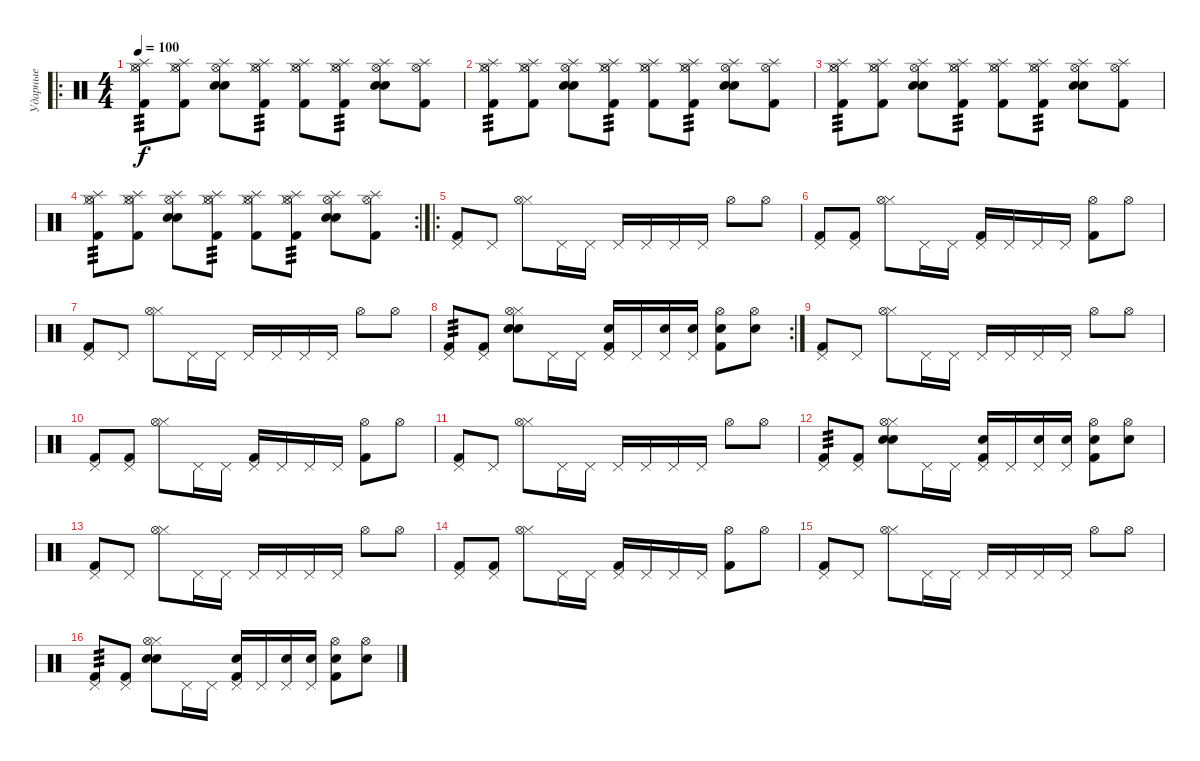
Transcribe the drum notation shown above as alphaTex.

\track ("Ударные" "Ударные") {instrument percussion}
\staff {score}
\articulation defaults
\ro
\ts (4 4)
\tempo 100
\clef neutral
\ks c
("Hi-Hat (open)" "Splash (hit)" "Hi-Hat (closed)" "Kick (hit) 2").8{tp 3 dy f} ("Hi-Hat (open)" "Splash (hit)" "Hi-Hat (closed)" "Kick (hit) 2").8 ("Electric Snare (hit)" "Snare (hit) 2" "Hi-Hat (open)" "Splash (hit)").8 ("Hi-Hat (open)" "Splash (hit)" "Hi-Hat (closed)" "Kick (hit) 2").8{tp 3} ("Hi-Hat (open)" "Splash (hit)" "Hi-Hat (closed)" "Kick (hit) 2").8 ("Hi-Hat (open)" "Splash (hit)" "Hi-Hat (closed)" "Kick (hit) 2").8{tp 3} ("Electric Snare (hit)" "Snare (hit) 2" "Hi-Hat (open)" "Splash (hit)").8 ("Hi-Hat (open)" "Splash (hit)" "Kick (hit) 2").8 |
("Hi-Hat (open)" "Splash (hit)" "Hi-Hat (closed)" "Kick (hit) 2").8{tp 3} ("Hi-Hat (open)" "Splash (hit)" "Hi-Hat (closed)" "Kick (hit) 2").8 ("Electric Snare (hit)" "Snare (hit) 2" "Hi-Hat (open)" "Splash (hit)").8 ("Hi-Hat (open)" "Splash (hit)" "Hi-Hat (closed)" "Kick (hit) 2").8{tp 3} ("Hi-Hat (open)" "Splash (hit)" "Hi-Hat (closed)" "Kick (hit) 2").8 ("Hi-Hat (open)" "Splash (hit)" "Hi-Hat (closed)" "Kick (hit) 2").8{tp 3} ("Electric Snare (hit)" "Snare (hit) 2" "Hi-Hat (open)" "Splash (hit)").8 ("Hi-Hat (open)" "Splash (hit)" "Kick (hit) 2").8 |
("Hi-Hat (open)" "Splash (hit)" "Hi-Hat (closed)" "Kick (hit) 2").8{tp 3} ("Hi-Hat (open)" "Splash (hit)" "Hi-Hat (closed)" "Kick (hit) 2").8 ("Electric Snare (hit)" "Snare (hit) 2" "Hi-Hat (open)" "Splash (hit)").8 ("Hi-Hat (open)" "Splash (hit)" "Hi-Hat (closed)" "Kick (hit) 2").8{tp 3} ("Hi-Hat (open)" "Splash (hit)" "Hi-Hat (closed)" "Kick (hit) 2").8 ("Hi-Hat (open)" "Splash (hit)" "Hi-Hat (closed)" "Kick (hit) 2").8{tp 3} ("Electric Snare (hit)" "Snare (hit) 2" "Hi-Hat (open)" "Splash (hit)").8 ("Hi-Hat (open)" "Splash (hit)" "Kick (hit) 2").8 |
\rc 2
("Hi-Hat (open)" "Splash (hit)" "Hi-Hat (closed)" "Kick (hit) 2").8{tp 3} ("Hi-Hat (open)" "Splash (hit)" "Hi-Hat (closed)" "Kick (hit) 2").8 ("Electric Snare (hit)" "Snare (hit) 2" "Hi-Hat (open)" "Splash (hit)").8 ("Hi-Hat (open)" "Splash (hit)" "Hi-Hat (closed)" "Kick (hit) 2").8{tp 3} ("Hi-Hat (open)" "Splash (hit)" "Hi-Hat (closed)" "Kick (hit) 2").8 ("Hi-Hat (open)" "Splash (hit)" "Hi-Hat (closed)" "Kick (hit) 2").8{tp 3} ("Electric Snare (hit)" "Snare (hit) 2" "Hi-Hat (open)" "Splash (hit)").8 ("Hi-Hat (open)" "Splash (hit)" "Kick (hit) 2").8 |
\ro
("Pedal Hi-Hat (hit)" "Kick (hit) 2").8 "Pedal Hi-Hat (hit)".8 ("Hi-Hat (closed)" "Hi-Hat (open)").8 "Pedal Hi-Hat (hit)".16 "Pedal Hi-Hat (hit)".16 "Pedal Hi-Hat (hit)".16 "Pedal Hi-Hat (hit)".16 "Pedal Hi-Hat (hit)".16 "Pedal Hi-Hat (hit)".16 "Hi-Hat (open)".8 "Hi-Hat (open)".8 |
("Pedal Hi-Hat (hit)" "Kick (hit) 2").8 ("Pedal Hi-Hat (hit)" "Kick (hit) 2").8 ("Hi-Hat (closed)" "Hi-Hat (open)").8 "Pedal Hi-Hat (hit)".16 "Pedal Hi-Hat (hit)".16 ("Pedal Hi-Hat (hit)" "Kick (hit) 2").16 "Pedal Hi-Hat (hit)".16 "Pedal Hi-Hat (hit)".16 "Pedal Hi-Hat (hit)".16 ("Hi-Hat (open)" "Kick (hit) 2").8 "Hi-Hat (open)".8 |
("Pedal Hi-Hat (hit)" "Kick (hit) 2").8 "Pedal Hi-Hat (hit)".8 ("Hi-Hat (closed)" "Hi-Hat (open)").8 "Pedal Hi-Hat (hit)".16 "Pedal Hi-Hat (hit)".16 "Pedal Hi-Hat (hit)".16 "Pedal Hi-Hat (hit)".16 "Pedal Hi-Hat (hit)".16 "Pedal Hi-Hat (hit)".16 "Hi-Hat (open)".8 "Hi-Hat (open)".8 |
\rc 2
("Pedal Hi-Hat (hit)" "Kick (hit) 2").8{tp 3} ("Pedal Hi-Hat (hit)" "Kick (hit) 2").8 ("Hi-Hat (closed)" "Hi-Hat (open)" "Electric Snare (hit)" "Snare (hit) 2").8 "Pedal Hi-Hat (hit)".16 "Pedal Hi-Hat (hit)".16 ("Pedal Hi-Hat (hit)" "Snare (hit) 2" "Kick (hit) 2").16 "Pedal Hi-Hat (hit)".16 ("Pedal Hi-Hat (hit)" "Snare (hit) 2").16 ("Pedal Hi-Hat (hit)" "Snare (hit) 2").16 ("Hi-Hat (open)" "Snare (hit) 2" "Kick (hit) 2").8 ("Hi-Hat (open)" "Snare (hit) 2").8 |
("Pedal Hi-Hat (hit)" "Kick (hit) 2").8 "Pedal Hi-Hat (hit)".8 ("Hi-Hat (closed)" "Hi-Hat (open)").8 "Pedal Hi-Hat (hit)".16 "Pedal Hi-Hat (hit)".16 "Pedal Hi-Hat (hit)".16 "Pedal Hi-Hat (hit)".16 "Pedal Hi-Hat (hit)".16 "Pedal Hi-Hat (hit)".16 "Hi-Hat (open)".8 "Hi-Hat (open)".8 |
("Pedal Hi-Hat (hit)" "Kick (hit) 2").8 ("Pedal Hi-Hat (hit)" "Kick (hit) 2").8 ("Hi-Hat (closed)" "Hi-Hat (open)").8 "Pedal Hi-Hat (hit)".16 "Pedal Hi-Hat (hit)".16 ("Pedal Hi-Hat (hit)" "Kick (hit) 2").16 "Pedal Hi-Hat (hit)".16 "Pedal Hi-Hat (hit)".16 "Pedal Hi-Hat (hit)".16 ("Hi-Hat (open)" "Kick (hit) 2").8 "Hi-Hat (open)".8 |
("Pedal Hi-Hat (hit)" "Kick (hit) 2").8 "Pedal Hi-Hat (hit)".8 ("Hi-Hat (closed)" "Hi-Hat (open)").8 "Pedal Hi-Hat (hit)".16 "Pedal Hi-Hat (hit)".16 "Pedal Hi-Hat (hit)".16 "Pedal Hi-Hat (hit)".16 "Pedal Hi-Hat (hit)".16 "Pedal Hi-Hat (hit)".16 "Hi-Hat (open)".8 "Hi-Hat (open)".8 |
("Pedal Hi-Hat (hit)" "Kick (hit) 2").8{tp 3} ("Pedal Hi-Hat (hit)" "Kick (hit) 2").8 ("Hi-Hat (closed)" "Hi-Hat (open)" "Electric Snare (hit)" "Snare (hit) 2").8 "Pedal Hi-Hat (hit)".16 "Pedal Hi-Hat (hit)".16 ("Pedal Hi-Hat (hit)" "Snare (hit) 2" "Kick (hit) 2").16 "Pedal Hi-Hat (hit)".16 ("Pedal Hi-Hat (hit)" "Snare (hit) 2").16 ("Pedal Hi-Hat (hit)" "Snare (hit) 2").16 ("Hi-Hat (open)" "Snare (hit) 2" "Kick (hit) 2").8 ("Hi-Hat (open)" "Snare (hit) 2").8 |
("Pedal Hi-Hat (hit)" "Kick (hit) 2").8 "Pedal Hi-Hat (hit)".8 ("Hi-Hat (closed)" "Hi-Hat (open)").8 "Pedal Hi-Hat (hit)".16 "Pedal Hi-Hat (hit)".16 "Pedal Hi-Hat (hit)".16 "Pedal Hi-Hat (hit)".16 "Pedal Hi-Hat (hit)".16 "Pedal Hi-Hat (hit)".16 "Hi-Hat (open)".8 "Hi-Hat (open)".8 |
("Pedal Hi-Hat (hit)" "Kick (hit) 2").8 ("Pedal Hi-Hat (hit)" "Kick (hit) 2").8 ("Hi-Hat (closed)" "Hi-Hat (open)").8 "Pedal Hi-Hat (hit)".16 "Pedal Hi-Hat (hit)".16 ("Pedal Hi-Hat (hit)" "Kick (hit) 2").16 "Pedal Hi-Hat (hit)".16 "Pedal Hi-Hat (hit)".16 "Pedal Hi-Hat (hit)".16 ("Hi-Hat (open)" "Kick (hit) 2").8 "Hi-Hat (open)".8 |
("Pedal Hi-Hat (hit)" "Kick (hit) 2").8 "Pedal Hi-Hat (hit)".8 ("Hi-Hat (closed)" "Hi-Hat (open)").8 "Pedal Hi-Hat (hit)".16 "Pedal Hi-Hat (hit)".16 "Pedal Hi-Hat (hit)".16 "Pedal Hi-Hat (hit)".16 "Pedal Hi-Hat (hit)".16 "Pedal Hi-Hat (hit)".16 "Hi-Hat (open)".8 "Hi-Hat (open)".8 |
("Pedal Hi-Hat (hit)" "Kick (hit) 2").8{tp 3} ("Pedal Hi-Hat (hit)" "Kick (hit) 2").8 ("Hi-Hat (closed)" "Hi-Hat (open)" "Electric Snare (hit)" "Snare (hit) 2").8 "Pedal Hi-Hat (hit)".16 "Pedal Hi-Hat (hit)".16 ("Pedal Hi-Hat (hit)" "Snare (hit) 2" "Kick (hit) 2").16 "Pedal Hi-Hat (hit)".16 ("Pedal Hi-Hat (hit)" "Snare (hit) 2").16 ("Pedal Hi-Hat (hit)" "Snare (hit) 2").16 ("Hi-Hat (open)" "Snare (hit) 2" "Kick (hit) 2").8 ("Hi-Hat (open)" "Snare (hit) 2").8
